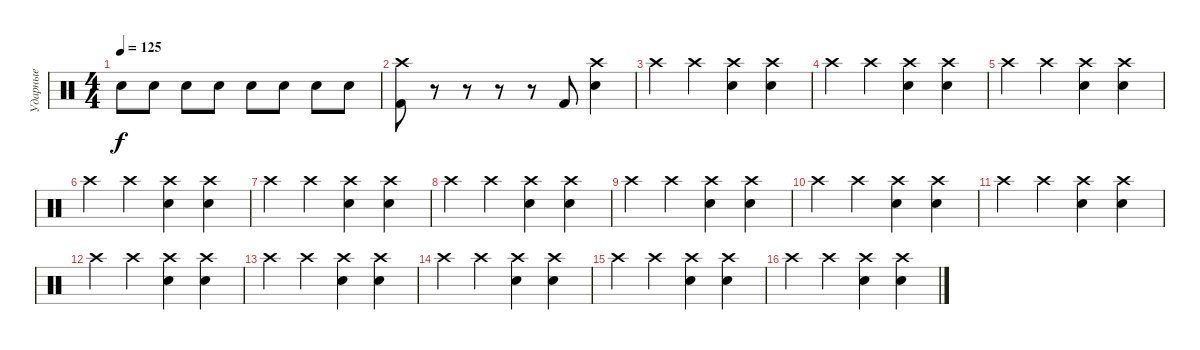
\track ("Ударные" "Ударные") {instrument percussion}
\staff {score}
\articulation defaults
\ts (4 4)
\tempo 125
\clef neutral
\ks c "Electric Snare (hit)".8{dy f} "Electric Snare (hit)".8 "Electric Snare (hit)".8 "Electric Snare (hit)".8 "Electric Snare (hit)".8 "Electric Snare (hit)".8 "Electric Snare (hit)".8 "Electric Snare (hit)".8
|
("Kick (hit) 2" "Crash high (hit)").8 r.8 r.8 r.8 r.8 "Kick (hit) 2".8 ("Crash high (hit)" "Electric Snare (hit)").4 |
"Crash high (hit)".4 "Crash high (hit)".4 ("Crash high (hit)" "Electric Snare (hit)").4 ("Crash high (hit)" "Electric Snare (hit)").4 |
"Crash high (hit)".4 "Crash high (hit)".4 ("Crash high (hit)" "Electric Snare (hit)").4 ("Crash high (hit)" "Electric Snare (hit)").4 |
"Crash high (hit)".4 "Crash high (hit)".4 ("Crash high (hit)" "Electric Snare (hit)").4 ("Crash high (hit)" "Electric Snare (hit)").4 |
"Crash high (hit)".4 "Crash high (hit)".4 ("Crash high (hit)" "Electric Snare (hit)").4 ("Crash high (hit)" "Electric Snare (hit)").4 |
"Crash high (hit)".4 "Crash high (hit)".4 ("Crash high (hit)" "Electric Snare (hit)").4 ("Crash high (hit)" "Electric Snare (hit)").4 |
"Crash high (hit)".4 "Crash high (hit)".4 ("Crash high (hit)" "Electric Snare (hit)").4 ("Crash high (hit)" "Electric Snare (hit)").4 |
"Crash high (hit)".4 "Crash high (hit)".4 ("Crash high (hit)" "Electric Snare (hit)").4 ("Crash high (hit)" "Electric Snare (hit)").4 |
"Crash high (hit)".4 "Crash high (hit)".4 ("Crash high (hit)" "Electric Snare (hit)").4 ("Crash high (hit)" "Electric Snare (hit)").4 |
"Crash high (hit)".4 "Crash high (hit)".4 ("Crash high (hit)" "Electric Snare (hit)").4 ("Crash high (hit)" "Electric Snare (hit)").4 |
"Crash high (hit)".4 "Crash high (hit)".4 ("Crash high (hit)" "Electric Snare (hit)").4 ("Crash high (hit)" "Electric Snare (hit)").4 |
"Crash high (hit)".4 "Crash high (hit)".4 ("Crash high (hit)" "Electric Snare (hit)").4 ("Crash high (hit)" "Electric Snare (hit)").4 |
"Crash high (hit)".4 "Crash high (hit)".4 ("Crash high (hit)" "Electric Snare (hit)").4 ("Crash high (hit)" "Electric Snare (hit)").4 |
"Crash high (hit)".4 "Crash high (hit)".4 ("Crash high (hit)" "Electric Snare (hit)").4 ("Crash high (hit)" "Electric Snare (hit)").4 |
"Crash high (hit)".4 "Crash high (hit)".4 ("Crash high (hit)" "Electric Snare (hit)").4 ("Crash high (hit)" "Electric Snare (hit)").4
